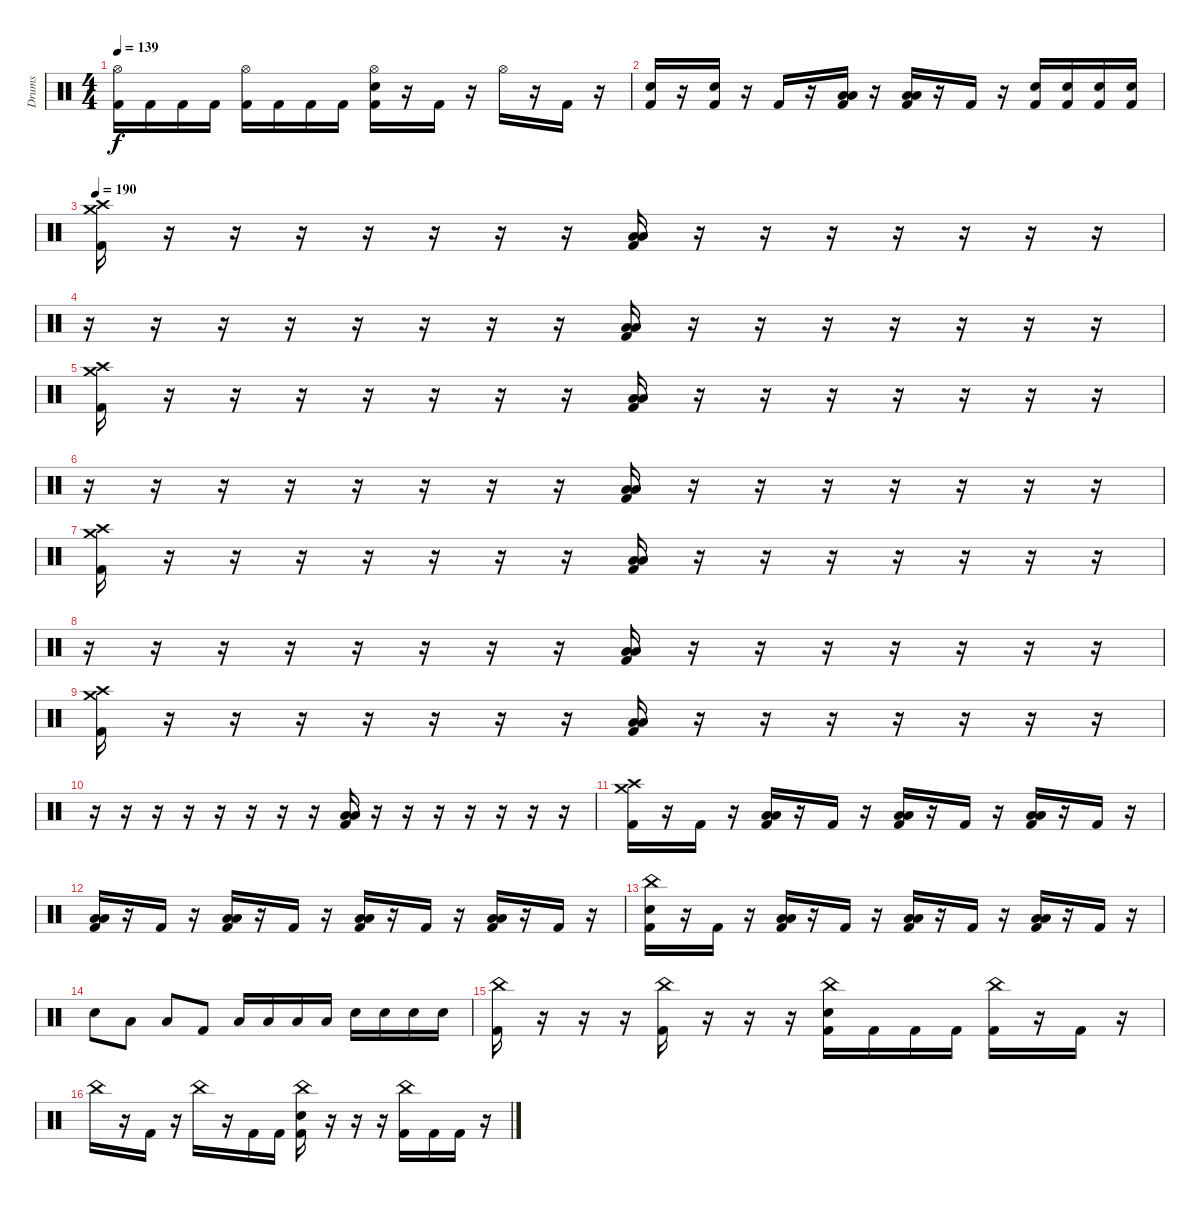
\track ("Drums" "Drums") {instrument percussion}
\staff {score}
\articulation defaults
\ts (4 4)
\tempo 139
\clef neutral
\ks c
("Hi-Hat (open)" "Kick (hit) 2").16{dy f} "Kick (hit) 2".16 "Kick (hit) 2".16 "Kick (hit) 2".16 ("Hi-Hat (open)" "Kick (hit) 2").16 "Kick (hit) 2".16 "Kick (hit) 2".16 "Kick (hit) 2".16 ("Hi-Hat (open)" "Electric Snare (hit)" "Kick (hit) 2").16 r.16 "Kick (hit) 2".16 r.16 "Hi-Hat (open)".16 r.16 "Kick (hit) 2".16 r.16 |
("Electric Snare (hit)" "Kick (hit) 2").16 r.16 ("Electric Snare (hit)" "Kick (hit) 2").16 r.16 "Kick (hit) 2".16 r.16 ("Low Tom (hit)" "Low Floor Tom (hit)" "Kick (hit) 2").16 r.16 ("Low Tom (hit)" "Low Floor Tom (hit)" "Kick (hit) 2").16 r.16 "Kick (hit) 2".16 r.16 ("Electric Snare (hit)" "Kick (hit) 2").16 ("Electric Snare (hit)" "Kick (hit) 2").16 ("Electric Snare (hit)" "Kick (hit) 2").16 ("Electric Snare (hit)" "Kick (hit) 2").16 |
\tempo 190
("Crash high (hit)" "Crash medium (hit)" "Kick (hit) 2").16 r.16 r.16 r.16 r.16 r.16 r.16 r.16 ("Low Tom (hit)" "Low Floor Tom (hit)" "Kick (hit) 2").16 r.16 r.16 r.16 r.16 r.16 r.16 r.16 |
r.16 r.16 r.16 r.16 r.16 r.16 r.16 r.16 ("Low Tom (hit)" "Low Floor Tom (hit)" "Kick (hit) 2").16 r.16 r.16 r.16 r.16 r.16 r.16 r.16 |
("Crash high (hit)" "Crash medium (hit)" "Kick (hit) 2").16 r.16 r.16 r.16 r.16 r.16 r.16 r.16 ("Low Tom (hit)" "Low Floor Tom (hit)" "Kick (hit) 2").16 r.16 r.16 r.16 r.16 r.16 r.16 r.16 |
r.16 r.16 r.16 r.16 r.16 r.16 r.16 r.16 ("Low Tom (hit)" "Low Floor Tom (hit)" "Kick (hit) 2").16 r.16 r.16 r.16 r.16 r.16 r.16 r.16 |
("Crash high (hit)" "Crash medium (hit)" "Kick (hit) 2").16 r.16 r.16 r.16 r.16 r.16 r.16 r.16 ("Low Tom (hit)" "Low Floor Tom (hit)" "Kick (hit) 2").16 r.16 r.16 r.16 r.16 r.16 r.16 r.16 |
r.16 r.16 r.16 r.16 r.16 r.16 r.16 r.16 ("Low Tom (hit)" "Low Floor Tom (hit)" "Kick (hit) 2").16 r.16 r.16 r.16 r.16 r.16 r.16 r.16 |
("Crash high (hit)" "Crash medium (hit)" "Kick (hit) 2").16 r.16 r.16 r.16 r.16 r.16 r.16 r.16 ("Low Tom (hit)" "Low Floor Tom (hit)" "Kick (hit) 2").16 r.16 r.16 r.16 r.16 r.16 r.16 r.16 |
r.16 r.16 r.16 r.16 r.16 r.16 r.16 r.16 ("Low Tom (hit)" "Low Floor Tom (hit)" "Kick (hit) 2").16 r.16 r.16 r.16 r.16 r.16 r.16 r.16 |
("Crash medium (hit)" "Crash high (hit)" "Kick (hit) 2").16 r.16 "Kick (hit) 2".16 r.16 ("Low Tom (hit)" "Low Floor Tom (hit)" "Kick (hit) 2").16 r.16 "Kick (hit) 2".16 r.16 ("Low Tom (hit)" "Low Floor Tom (hit)" "Kick (hit) 2").16 r.16 "Kick (hit) 2".16 r.16 ("Low Tom (hit)" "Low Floor Tom (hit)" "Kick (hit) 2").16 r.16 "Kick (hit) 2".16 r.16 |
("Low Tom (hit)" "Low Floor Tom (hit)" "Kick (hit) 2").16 r.16 "Kick (hit) 2".16 r.16 ("Low Tom (hit)" "Low Floor Tom (hit)" "Kick (hit) 2").16 r.16 "Kick (hit) 2".16 r.16 ("Low Tom (hit)" "Low Floor Tom (hit)" "Kick (hit) 2").16 r.16 "Kick (hit) 2".16 r.16 ("Low Tom (hit)" "Low Floor Tom (hit)" "Kick (hit) 2").16 r.16 "Kick (hit) 2".16 r.16 |
("China (hit)" "Electric Snare (hit)" "Kick (hit) 2").16 r.16 "Kick (hit) 2".16 r.16 ("Low Tom (hit)" "Low Floor Tom (hit)" "Kick (hit) 2").16 r.16 "Kick (hit) 2".16 r.16 ("Low Tom (hit)" "Low Floor Tom (hit)" "Kick (hit) 2").16 r.16 "Kick (hit) 2".16 r.16 ("Low Tom (hit)" "Low Floor Tom (hit)" "Kick (hit) 2").16 r.16 "Kick (hit) 2".16 r.16 |
"Electric Snare (hit)".8 "Low Tom (hit)".8 "Low Floor Tom (hit)".8 "Kick (hit) 2".8 "Low Tom (hit)".16 "Low Tom (hit)".16 "Low Tom (hit)".16 "Low Tom (hit)".16 "Electric Snare (hit)".16 "Electric Snare (hit)".16 "Electric Snare (hit)".16 "Electric Snare (hit)".16 |
("China (hit)" "Kick (hit) 2").16 r.16 r.16 r.16 ("China (hit)" "Kick (hit) 2").16 r.16 r.16 r.16 ("China (hit)" "Electric Snare (hit)" "Kick (hit) 2").16 "Kick (hit) 2".16 "Kick (hit) 2".16 "Kick (hit) 2".16 ("China (hit)" "Kick (hit) 2").16 r.16 "Kick (hit) 2".16 r.16 |
"China (hit)".16 r.16 "Kick (hit) 2".16 r.16 "China (hit)".16 r.16 "Kick (hit) 2".16 "Kick (hit) 2".16 ("China (hit)" "Electric Snare (hit)" "Kick (hit) 2").16 r.16 r.16 r.16 ("China (hit)" "Kick (hit) 2").16 "Kick (hit) 2".16 "Kick (hit) 2".16 r.16
